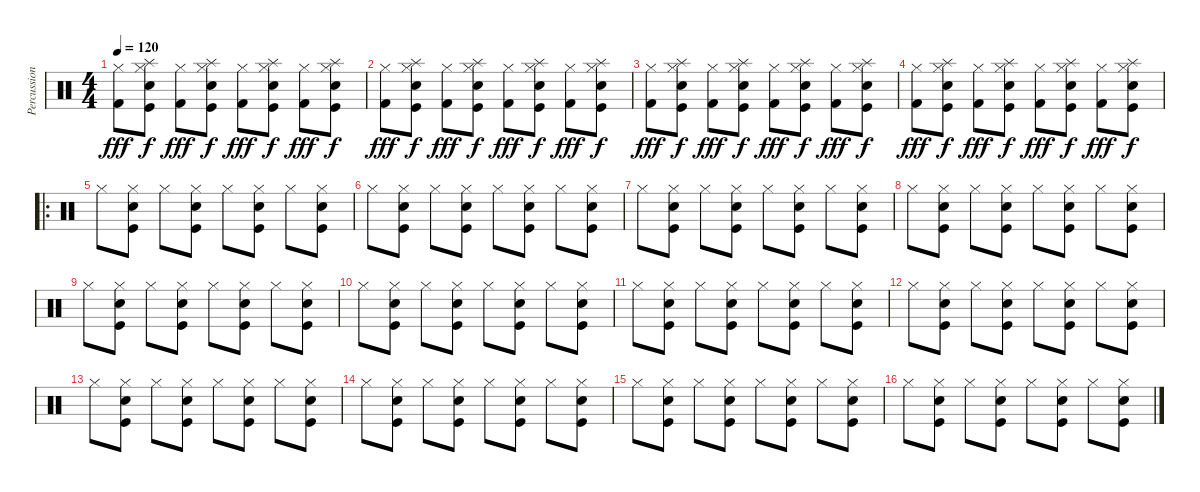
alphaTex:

\track ("Percussion-Alex" "Percussion") {instrument percussion}
\staff {score}
\articulation defaults
\ts (4 4)
\tempo 120
\clef neutral
\ks c
("Hi-Hat (closed)" "Kick (hit) 2").8{dy fff} ("Splash (hit)" "Snare (hit) 2" "Hi-Hat (closed)" "Kick (hit)").8{dy f} ("Hi-Hat (closed)" "Kick (hit) 2").8{dy fff} ("Splash (hit)" "Snare (hit) 2" "Hi-Hat (closed)" "Kick (hit)").8{dy f} ("Hi-Hat (closed)" "Kick (hit) 2").8{dy fff} ("Splash (hit)" "Snare (hit) 2" "Hi-Hat (closed)" "Kick (hit)").8{dy f} ("Hi-Hat (closed)" "Kick (hit) 2").8{dy fff} ("Splash (hit)" "Snare (hit) 2" "Hi-Hat (closed)" "Kick (hit)").8{dy f} |
("Hi-Hat (closed)" "Kick (hit) 2").8{dy fff} ("Splash (hit)" "Snare (hit) 2" "Hi-Hat (closed)" "Kick (hit)").8{dy f} ("Hi-Hat (closed)" "Kick (hit) 2").8{dy fff} ("Splash (hit)" "Snare (hit) 2" "Hi-Hat (closed)" "Kick (hit)").8{dy f} ("Hi-Hat (closed)" "Kick (hit) 2").8{dy fff} ("Splash (hit)" "Snare (hit) 2" "Hi-Hat (closed)" "Kick (hit)").8{dy f} ("Hi-Hat (closed)" "Kick (hit) 2").8{dy fff} ("Splash (hit)" "Snare (hit) 2" "Hi-Hat (closed)" "Kick (hit)").8{dy f} |
("Hi-Hat (closed)" "Kick (hit) 2").8{dy fff} ("Splash (hit)" "Snare (hit) 2" "Hi-Hat (closed)" "Kick (hit)").8{dy f} ("Hi-Hat (closed)" "Kick (hit) 2").8{dy fff} ("Splash (hit)" "Snare (hit) 2" "Hi-Hat (closed)" "Kick (hit)").8{dy f} ("Hi-Hat (closed)" "Kick (hit) 2").8{dy fff} ("Splash (hit)" "Snare (hit) 2" "Hi-Hat (closed)" "Kick (hit)").8{dy f} ("Hi-Hat (closed)" "Kick (hit) 2").8{dy fff} ("Splash (hit)" "Snare (hit) 2" "Hi-Hat (closed)" "Kick (hit)").8{dy f} |
("Hi-Hat (closed)" "Kick (hit) 2").8{dy fff} ("Splash (hit)" "Snare (hit) 2" "Hi-Hat (closed)" "Kick (hit)").8{dy f} ("Hi-Hat (closed)" "Kick (hit) 2").8{dy fff} ("Splash (hit)" "Snare (hit) 2" "Hi-Hat (closed)" "Kick (hit)").8{dy f} ("Hi-Hat (closed)" "Kick (hit) 2").8{dy fff} ("Splash (hit)" "Snare (hit) 2" "Hi-Hat (closed)" "Kick (hit)").8{dy f} ("Hi-Hat (closed)" "Kick (hit) 2").8{dy fff} ("Splash (hit)" "Snare (hit) 2" "Hi-Hat (closed)" "Kick (hit)").8{dy f} |
\ro "Hi-Hat (closed)".8
("Snare (hit) 2" "Hi-Hat (closed)" "Kick (hit)").8 "Hi-Hat (closed)".8 ("Snare (hit) 2" "Hi-Hat (closed)" "Kick (hit)").8 "Hi-Hat (closed)".8 ("Snare (hit) 2" "Hi-Hat (closed)" "Kick (hit)").8 "Hi-Hat (closed)".8 ("Snare (hit) 2" "Hi-Hat (closed)" "Kick (hit)").8 |
"Hi-Hat (closed)".8 ("Snare (hit) 2" "Hi-Hat (closed)" "Kick (hit)").8 "Hi-Hat (closed)".8 ("Snare (hit) 2" "Hi-Hat (closed)" "Kick (hit)").8 "Hi-Hat (closed)".8 ("Snare (hit) 2" "Hi-Hat (closed)" "Kick (hit)").8 "Hi-Hat (closed)".8 ("Snare (hit) 2" "Hi-Hat (closed)" "Kick (hit)").8 |
"Hi-Hat (closed)".8 ("Snare (hit) 2" "Hi-Hat (closed)" "Kick (hit)").8 "Hi-Hat (closed)".8 ("Snare (hit) 2" "Hi-Hat (closed)" "Kick (hit)").8 "Hi-Hat (closed)".8 ("Snare (hit) 2" "Hi-Hat (closed)" "Kick (hit)").8 "Hi-Hat (closed)".8 ("Snare (hit) 2" "Hi-Hat (closed)" "Kick (hit)").8 |
"Hi-Hat (closed)".8 ("Snare (hit) 2" "Hi-Hat (closed)" "Kick (hit)").8 "Hi-Hat (closed)".8 ("Snare (hit) 2" "Hi-Hat (closed)" "Kick (hit)").8 "Hi-Hat (closed)".8 ("Snare (hit) 2" "Hi-Hat (closed)" "Kick (hit)").8 "Hi-Hat (closed)".8 ("Snare (hit) 2" "Hi-Hat (closed)" "Kick (hit)").8 |
"Hi-Hat (closed)".8 ("Snare (hit) 2" "Hi-Hat (closed)" "Kick (hit)").8 "Hi-Hat (closed)".8 ("Snare (hit) 2" "Hi-Hat (closed)" "Kick (hit)").8 "Hi-Hat (closed)".8 ("Snare (hit) 2" "Hi-Hat (closed)" "Kick (hit)").8 "Hi-Hat (closed)".8 ("Snare (hit) 2" "Hi-Hat (closed)" "Kick (hit)").8 |
"Hi-Hat (closed)".8 ("Snare (hit) 2" "Hi-Hat (closed)" "Kick (hit)").8 "Hi-Hat (closed)".8 ("Snare (hit) 2" "Hi-Hat (closed)" "Kick (hit)").8 "Hi-Hat (closed)".8 ("Snare (hit) 2" "Hi-Hat (closed)" "Kick (hit)").8 "Hi-Hat (closed)".8 ("Snare (hit) 2" "Hi-Hat (closed)" "Kick (hit)").8 |
"Hi-Hat (closed)".8 ("Snare (hit) 2" "Hi-Hat (closed)" "Kick (hit)").8 "Hi-Hat (closed)".8 ("Snare (hit) 2" "Hi-Hat (closed)" "Kick (hit)").8 "Hi-Hat (closed)".8 ("Snare (hit) 2" "Hi-Hat (closed)" "Kick (hit)").8 "Hi-Hat (closed)".8 ("Snare (hit) 2" "Hi-Hat (closed)" "Kick (hit)").8 |
"Hi-Hat (closed)".8 ("Snare (hit) 2" "Hi-Hat (closed)" "Kick (hit)").8 "Hi-Hat (closed)".8 ("Snare (hit) 2" "Hi-Hat (closed)" "Kick (hit)").8 "Hi-Hat (closed)".8 ("Snare (hit) 2" "Hi-Hat (closed)" "Kick (hit)").8 "Hi-Hat (closed)".8 ("Snare (hit) 2" "Hi-Hat (closed)" "Kick (hit)").8 |
"Hi-Hat (closed)".8 ("Snare (hit) 2" "Hi-Hat (closed)" "Kick (hit)").8 "Hi-Hat (closed)".8 ("Snare (hit) 2" "Hi-Hat (closed)" "Kick (hit)").8 "Hi-Hat (closed)".8 ("Snare (hit) 2" "Hi-Hat (closed)" "Kick (hit)").8 "Hi-Hat (closed)".8 ("Snare (hit) 2" "Hi-Hat (closed)" "Kick (hit)").8 |
"Hi-Hat (closed)".8 ("Snare (hit) 2" "Hi-Hat (closed)" "Kick (hit)").8 "Hi-Hat (closed)".8 ("Snare (hit) 2" "Hi-Hat (closed)" "Kick (hit)").8 "Hi-Hat (closed)".8 ("Snare (hit) 2" "Hi-Hat (closed)" "Kick (hit)").8 "Hi-Hat (closed)".8 ("Snare (hit) 2" "Hi-Hat (closed)" "Kick (hit)").8 |
"Hi-Hat (closed)".8 ("Snare (hit) 2" "Hi-Hat (closed)" "Kick (hit)").8 "Hi-Hat (closed)".8 ("Snare (hit) 2" "Hi-Hat (closed)" "Kick (hit)").8 "Hi-Hat (closed)".8 ("Snare (hit) 2" "Hi-Hat (closed)" "Kick (hit)").8 "Hi-Hat (closed)".8 ("Snare (hit) 2" "Hi-Hat (closed)" "Kick (hit)").8 |
"Hi-Hat (closed)".8 ("Snare (hit) 2" "Hi-Hat (closed)" "Kick (hit)").8 "Hi-Hat (closed)".8 ("Snare (hit) 2" "Hi-Hat (closed)" "Kick (hit)").8 "Hi-Hat (closed)".8 ("Snare (hit) 2" "Hi-Hat (closed)" "Kick (hit)").8 "Hi-Hat (closed)".8 ("Snare (hit) 2" "Hi-Hat (closed)" "Kick (hit)").8
